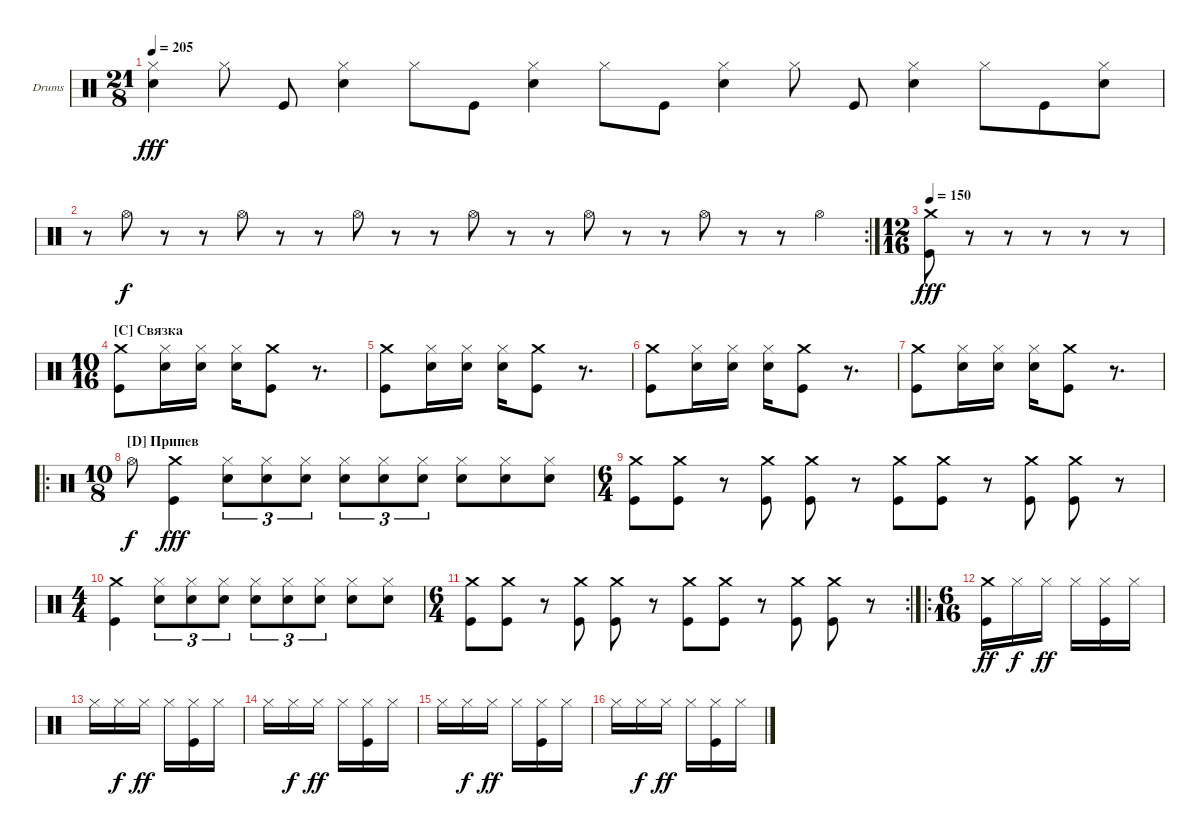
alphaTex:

\bracketExtendMode groupsimilarinstruments
\firstSystemTrackNameOrientation horizontal
\otherSystemsTrackNameOrientation horizontal
\track ("Сеня(Drumkit)" "Drums") {instrument percussion}
\staff {score}
\articulation defaults
\ts (21 8)
\tempo 205
\clef neutral
\ks c
("Snare (hit) 2" "Hi-Hat (closed)").4{dy fff} "Hi-Hat (closed)".8 "Kick (hit)".8 ("Snare (hit) 2" "Hi-Hat (closed)").4 "Hi-Hat (closed)".8 "Kick (hit)".8 ("Snare (hit) 2" "Hi-Hat (closed)").4 "Hi-Hat (closed)".8 "Kick (hit)".8 ("Snare (hit) 2" "Hi-Hat (closed)").4 "Hi-Hat (closed)".8 "Kick (hit)".8 ("Snare (hit) 2" "Hi-Hat (closed)").4 "Hi-Hat (closed)".8 "Kick (hit)".8 ("Snare (hit) 2" "Hi-Hat (closed)").8 |
\rc 2
r.8 "Hi-Hat (open)".8{dy f} r.8 r.8 "Hi-Hat (open)".8 r.8 r.8 "Hi-Hat (open)".8 r.8 r.8 "Hi-Hat (open)".8 r.8 r.8 "Hi-Hat (open)".8 r.8 r.8 "Hi-Hat (open)".8 r.8 r.8 "Hi-Hat (open)".4 |
\ts (12 16)
\tempo 150
("Crash medium (hit)" "Kick (hit)").8{dy fff} r.8 r.8 r.8 r.8 r.8 |
\ts (10 16)
\section ("C" "Связка")
("Crash medium (hit)" "Kick (hit)").8 ("Snare (hit) 2" "Hi-Hat (closed)").16 ("Snare (hit) 2" "Hi-Hat (closed)").16 ("Snare (hit) 2" "Hi-Hat (closed)").16 ("Crash medium (hit)" "Kick (hit)").8 r.8{d} |
("Crash medium (hit)" "Kick (hit)").8 ("Snare (hit) 2" "Hi-Hat (closed)").16 ("Snare (hit) 2" "Hi-Hat (closed)").16 ("Snare (hit) 2" "Hi-Hat (closed)").16 ("Crash medium (hit)" "Kick (hit)").8 r.8{d} |
("Crash medium (hit)" "Kick (hit)").8 ("Snare (hit) 2" "Hi-Hat (closed)").16 ("Snare (hit) 2" "Hi-Hat (closed)").16 ("Snare (hit) 2" "Hi-Hat (closed)").16 ("Crash medium (hit)" "Kick (hit)").8 r.8{d} |
("Crash medium (hit)" "Kick (hit)").8 ("Snare (hit) 2" "Hi-Hat (closed)").16 ("Snare (hit) 2" "Hi-Hat (closed)").16 ("Snare (hit) 2" "Hi-Hat (closed)").16 ("Crash medium (hit)" "Kick (hit)").8 r.8{d} |
\ro
\ts (10 8)
\section ("D" "Припев")
"Hi-Hat (open)".8{dy f} ("Crash medium (hit)" "Kick (hit)").4{dy fff} ("Snare (hit) 2" "Hi-Hat (closed)").8{tu (3 2)} ("Snare (hit) 2" "Hi-Hat (closed)").8{tu (3 2)} ("Snare (hit) 2" "Hi-Hat (closed)").8{tu (3 2)} ("Snare (hit) 2" "Hi-Hat (closed)").8{tu (3 2)} ("Snare (hit) 2" "Hi-Hat (closed)").8{tu (3 2)} ("Snare (hit) 2" "Hi-Hat (closed)").8{tu (3 2)} ("Snare (hit) 2" "Hi-Hat (closed)").8 ("Snare (hit) 2" "Hi-Hat (closed)").8 ("Snare (hit) 2" "Hi-Hat (closed)").8 |
\ts (6 4)
("Crash medium (hit)" "Kick (hit)").8 ("Crash medium (hit)" "Kick (hit)").8 r.8 ("Crash medium (hit)" "Kick (hit)").8 ("Crash medium (hit)" "Kick (hit)").8 r.8 ("Crash medium (hit)" "Kick (hit)").8 ("Crash medium (hit)" "Kick (hit)").8 r.8 ("Crash medium (hit)" "Kick (hit)").8 ("Crash medium (hit)" "Kick (hit)").8 r.8 |
\ts (4 4)
("Crash medium (hit)" "Kick (hit)").4 ("Snare (hit) 2" "Hi-Hat (closed)").8{tu (3 2)} ("Snare (hit) 2" "Hi-Hat (closed)").8{tu (3 2)} ("Snare (hit) 2" "Hi-Hat (closed)").8{tu (3 2)} ("Snare (hit) 2" "Hi-Hat (closed)").8{tu (3 2)} ("Snare (hit) 2" "Hi-Hat (closed)").8{tu (3 2)} ("Snare (hit) 2" "Hi-Hat (closed)").8{tu (3 2)} ("Snare (hit) 2" "Hi-Hat (closed)").8 ("Snare (hit) 2" "Hi-Hat (closed)").8 |
\rc 2
\ts (6 4)
("Crash medium (hit)" "Kick (hit)").8 ("Crash medium (hit)" "Kick (hit)").8 r.8 ("Crash medium (hit)" "Kick (hit)").8 ("Crash medium (hit)" "Kick (hit)").8 r.8 ("Crash medium (hit)" "Kick (hit)").8 ("Crash medium (hit)" "Kick (hit)").8 r.8 ("Crash medium (hit)" "Kick (hit)").8 ("Crash medium (hit)" "Kick (hit)").8 r.8 |
\ro
\ts (6 16)
("Crash medium (hit)" "Kick (hit)").16{dy ff} "Hi-Hat (closed)".16{dy f} "Hi-Hat (closed)".16{dy ff} "Hi-Hat (closed)".16 ("Hi-Hat (closed)" "Kick (hit)").16 "Hi-Hat (closed)".16 |
"Hi-Hat (closed)".16 "Hi-Hat (closed)".16{dy f} "Hi-Hat (closed)".16{dy ff} "Hi-Hat (closed)".16 ("Hi-Hat (closed)" "Kick (hit)").16 "Hi-Hat (closed)".16 |
"Hi-Hat (closed)".16 "Hi-Hat (closed)".16{dy f} "Hi-Hat (closed)".16{dy ff} "Hi-Hat (closed)".16 ("Hi-Hat (closed)" "Kick (hit)").16 "Hi-Hat (closed)".16 |
"Hi-Hat (closed)".16 "Hi-Hat (closed)".16{dy f} "Hi-Hat (closed)".16{dy ff} "Hi-Hat (closed)".16 ("Hi-Hat (closed)" "Kick (hit)").16 "Hi-Hat (closed)".16 |
"Hi-Hat (closed)".16 "Hi-Hat (closed)".16{dy f} "Hi-Hat (closed)".16{dy ff} "Hi-Hat (closed)".16 ("Hi-Hat (closed)" "Kick (hit)").16 "Hi-Hat (closed)".16
